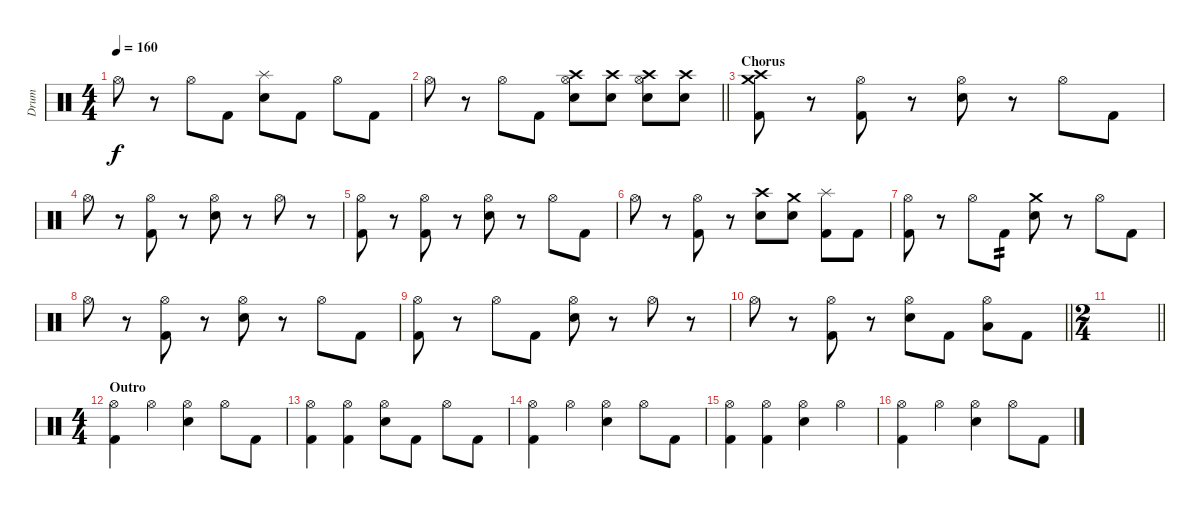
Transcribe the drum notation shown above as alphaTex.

\track ("Drum" "Drum") {instrument percussion}
\staff {score}
\articulation defaults
\ts (4 4)
\tempo 160
\clef neutral
\ks c "Hi-Hat (open)".8{dy f}
r.8 "Hi-Hat (open)".8 "Kick (hit) 2".8 ("Splash (hit)" "Electric Snare (hit)").8 "Kick (hit) 2".8 "Hi-Hat (open)".8 "Kick (hit) 2".8 |
\barLineRight lightlight "Hi-Hat (open)".8
r.8 "Hi-Hat (open)".8 "Kick (hit) 2".8 ("Hi-Hat (open)" "Crash high (hit)" "Electric Snare (hit)").8 ("Crash high (hit)" "Electric Snare (hit)").8 ("Hi-Hat (open)" "Crash high (hit)" "Electric Snare (hit)").8 ("Crash high (hit)" "Electric Snare (hit)").8 |
\section ("" "Chorus")
("Crash high (hit)" "Crash medium (hit)" "Kick (hit) 2").8 r.8 ("Hi-Hat (open)" "Kick (hit) 2").8 r.8 ("Hi-Hat (open)" "Electric Snare (hit)").8 r.8 "Hi-Hat (open)".8 "Kick (hit) 2".8 |
"Hi-Hat (open)".8 r.8 ("Hi-Hat (open)" "Kick (hit) 2").8 r.8 ("Hi-Hat (open)" "Electric Snare (hit)").8 r.8 "Hi-Hat (open)".8 r.8 |
("Hi-Hat (open)" "Kick (hit) 2").8 r.8 ("Hi-Hat (open)" "Kick (hit) 2").8 r.8 ("Hi-Hat (open)" "Electric Snare (hit)").8 r.8 "Hi-Hat (open)".8 "Kick (hit) 2".8 |
"Hi-Hat (open)".8 r.8 ("Hi-Hat (open)" "Kick (hit) 2").8 r.8 ("Crash high (hit)" "Electric Snare (hit)").8 ("Crash medium (hit)" "Electric Snare (hit)").8 ("Splash (hit)" "Kick (hit) 2").8 "Kick (hit) 2".8 |
("Hi-Hat (open)" "Kick (hit) 2").8 r.8 "Hi-Hat (open)".8 "Kick (hit) 2".8{tp 2} ("Crash medium (hit)" "Electric Snare (hit)").8 r.8 "Hi-Hat (open)".8 "Kick (hit) 2".8 |
"Hi-Hat (open)".8 r.8 ("Hi-Hat (open)" "Kick (hit) 2").8 r.8 ("Hi-Hat (open)" "Electric Snare (hit)").8 r.8 "Hi-Hat (open)".8 "Kick (hit) 2".8 |
("Hi-Hat (open)" "Kick (hit) 2").8 r.8 "Hi-Hat (open)".8 "Kick (hit) 2".8 ("Hi-Hat (open)" "Electric Snare (hit)").8 r.8 "Hi-Hat (open)".8 r.8 |
\barLineRight lightlight "Hi-Hat (open)".8
r.8 ("Hi-Hat (open)" "Kick (hit) 2").8 r.8 ("Hi-Hat (open)" "Electric Snare (hit)").8 "Kick (hit) 2".8 ("Hi-Hat (open)" "Low Floor Tom (hit)").8 "Kick (hit) 2".8 |
\ts (2 4)
\barLineRight lightlight
|
\ts (4 4)
\section ("" "Outro")
("Hi-Hat (open)" "Kick (hit) 2").4 "Hi-Hat (open)".4 ("Hi-Hat (open)" "Electric Snare (hit)").4 "Hi-Hat (open)".8 "Kick (hit) 2".8 |
("Hi-Hat (open)" "Kick (hit) 2").4 ("Hi-Hat (open)" "Kick (hit) 2").4 ("Hi-Hat (open)" "Electric Snare (hit)").8 "Kick (hit) 2".8 "Hi-Hat (open)".8 "Kick (hit) 2".8 |
("Hi-Hat (open)" "Kick (hit) 2").4 "Hi-Hat (open)".4 ("Hi-Hat (open)" "Electric Snare (hit)").4 "Hi-Hat (open)".8 "Kick (hit) 2".8 |
("Hi-Hat (open)" "Kick (hit) 2").4 ("Hi-Hat (open)" "Kick (hit) 2").4 ("Hi-Hat (open)" "Electric Snare (hit)").4 "Hi-Hat (open)".4 |
("Hi-Hat (open)" "Kick (hit) 2").4 "Hi-Hat (open)".4 ("Hi-Hat (open)" "Electric Snare (hit)").4 "Hi-Hat (open)".8 "Kick (hit) 2".8
